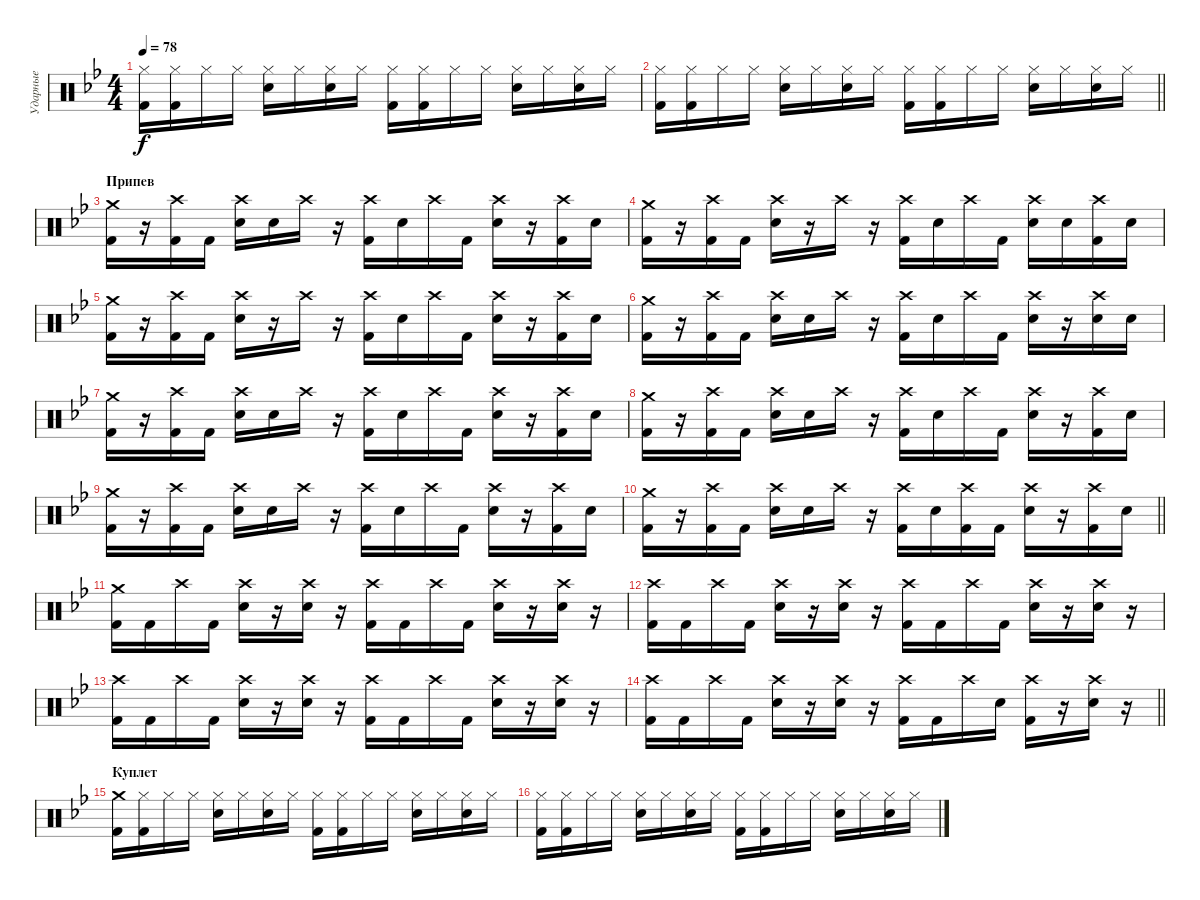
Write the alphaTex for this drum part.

\track ("Ударные" "Ударные") {instrument percussion}
\staff {score}
\articulation defaults
\ts (4 4)
\tempo 78
\clef neutral
\ks gminor
("Hi-Hat (closed)" "Kick (hit) 2").16{dy f} ("Hi-Hat (closed)" "Kick (hit) 2").16 "Hi-Hat (closed)".16 "Hi-Hat (closed)".16 ("Hi-Hat (closed)" "Electric Snare (hit)").16 "Hi-Hat (closed)".16 ("Hi-Hat (closed)" "Electric Snare (hit)").16 "Hi-Hat (closed)".16 ("Hi-Hat (closed)" "Kick (hit) 2").16 ("Hi-Hat (closed)" "Kick (hit) 2").16 "Hi-Hat (closed)".16 "Hi-Hat (closed)".16 ("Hi-Hat (closed)" "Electric Snare (hit)").16 "Hi-Hat (closed)".16 ("Hi-Hat (closed)" "Electric Snare (hit)").16 "Hi-Hat (closed)".16 |
\barLineRight lightlight
("Hi-Hat (closed)" "Kick (hit) 2").16 ("Hi-Hat (closed)" "Kick (hit) 2").16 "Hi-Hat (closed)".16 "Hi-Hat (closed)".16 ("Hi-Hat (closed)" "Electric Snare (hit)").16 "Hi-Hat (closed)".16 ("Hi-Hat (closed)" "Electric Snare (hit)").16 "Hi-Hat (closed)".16 ("Hi-Hat (closed)" "Kick (hit) 2").16 ("Hi-Hat (closed)" "Kick (hit) 2").16 "Hi-Hat (closed)".16 "Hi-Hat (closed)".16 ("Hi-Hat (closed)" "Electric Snare (hit)").16 "Hi-Hat (closed)".16 ("Hi-Hat (closed)" "Electric Snare (hit)").16 "Hi-Hat (closed)".16 |
\section ("" "Припев")
("Crash medium (hit)" "Kick (hit) 2").16 r.16 ("Crash high (hit)" "Kick (hit) 2").16 "Kick (hit) 2".16 ("Crash high (hit)" "Electric Snare (hit)").16 "Electric Snare (hit)".16 "Crash high (hit)".16 r.16 ("Crash high (hit)" "Kick (hit) 2").16 "Electric Snare (hit)".16 "Crash high (hit)".16 "Kick (hit) 2".16 ("Crash high (hit)" "Electric Snare (hit)").16 r.16 ("Crash high (hit)" "Kick (hit) 2").16 "Electric Snare (hit)".16 |
("Crash medium (hit)" "Kick (hit) 2").16 r.16 ("Crash high (hit)" "Kick (hit) 2").16 "Kick (hit) 2".16 ("Crash high (hit)" "Electric Snare (hit)").16 r.16 "Crash high (hit)".16 r.16 ("Crash high (hit)" "Kick (hit) 2").16 "Electric Snare (hit)".16 "Crash high (hit)".16 "Kick (hit) 2".16 ("Crash high (hit)" "Electric Snare (hit)").16 "Electric Snare (hit)".16 ("Crash high (hit)" "Kick (hit) 2").16 "Electric Snare (hit)".16 |
("Crash medium (hit)" "Kick (hit) 2").16 r.16 ("Crash high (hit)" "Kick (hit) 2").16 "Kick (hit) 2".16 ("Crash high (hit)" "Electric Snare (hit)").16 r.16 "Crash high (hit)".16 r.16 ("Crash high (hit)" "Kick (hit) 2").16 "Electric Snare (hit)".16 "Crash high (hit)".16 "Kick (hit) 2".16 ("Crash high (hit)" "Electric Snare (hit)").16 r.16 ("Crash high (hit)" "Kick (hit) 2").16 "Electric Snare (hit)".16 |
("Crash medium (hit)" "Kick (hit) 2").16 r.16 ("Crash high (hit)" "Kick (hit) 2").16 "Kick (hit) 2".16 ("Crash high (hit)" "Electric Snare (hit)").16 "Electric Snare (hit)".16 "Crash high (hit)".16 r.16 ("Crash high (hit)" "Kick (hit) 2").16 "Electric Snare (hit)".16 "Crash high (hit)".16 "Kick (hit) 2".16 ("Crash high (hit)" "Electric Snare (hit)").16 r.16 ("Crash high (hit)" "Electric Snare (hit)").16 "Electric Snare (hit)".16 |
("Crash medium (hit)" "Kick (hit) 2").16 r.16 ("Crash high (hit)" "Kick (hit) 2").16 "Kick (hit) 2".16 ("Crash high (hit)" "Electric Snare (hit)").16 "Electric Snare (hit)".16 "Crash high (hit)".16 r.16 ("Crash high (hit)" "Kick (hit) 2").16 "Electric Snare (hit)".16 "Crash high (hit)".16 "Kick (hit) 2".16 ("Crash high (hit)" "Electric Snare (hit)").16 r.16 ("Crash high (hit)" "Kick (hit) 2").16 "Electric Snare (hit)".16 |
("Crash medium (hit)" "Kick (hit) 2").16 r.16 ("Crash high (hit)" "Kick (hit) 2").16 "Kick (hit) 2".16 ("Crash high (hit)" "Electric Snare (hit)").16 "Electric Snare (hit)".16 "Crash high (hit)".16 r.16 ("Crash high (hit)" "Kick (hit) 2").16 "Electric Snare (hit)".16 "Crash high (hit)".16 "Kick (hit) 2".16 ("Crash high (hit)" "Electric Snare (hit)").16 r.16 ("Crash high (hit)" "Kick (hit) 2").16 "Electric Snare (hit)".16 |
("Crash medium (hit)" "Kick (hit) 2").16 r.16 ("Crash high (hit)" "Kick (hit) 2").16 "Kick (hit) 2".16 ("Crash high (hit)" "Electric Snare (hit)").16 "Electric Snare (hit)".16 "Crash high (hit)".16 r.16 ("Crash high (hit)" "Kick (hit) 2").16 "Electric Snare (hit)".16 "Crash high (hit)".16 "Kick (hit) 2".16 ("Crash high (hit)" "Electric Snare (hit)").16 r.16 ("Crash high (hit)" "Kick (hit) 2").16 "Electric Snare (hit)".16 |
\barLineRight lightlight
("Crash medium (hit)" "Kick (hit) 2").16 r.16 ("Crash high (hit)" "Kick (hit) 2").16 "Kick (hit) 2".16 ("Crash high (hit)" "Electric Snare (hit)").16 "Electric Snare (hit)".16 "Crash high (hit)".16 r.16 ("Crash high (hit)" "Kick (hit) 2").16 "Electric Snare (hit)".16 ("Crash high (hit)" "Kick (hit) 2").16 "Kick (hit) 2".16 ("Crash high (hit)" "Electric Snare (hit)").16 r.16 ("Crash high (hit)" "Kick (hit) 2").16 "Electric Snare (hit)".16 |
("Crash medium (hit)" "Kick (hit) 2").16 "Kick (hit) 2".16 "Crash high (hit)".16 "Kick (hit) 2".16 ("Crash high (hit)" "Electric Snare (hit)").16 r.16 ("Crash high (hit)" "Electric Snare (hit)").16 r.16 ("Crash high (hit)" "Kick (hit) 2").16 "Kick (hit) 2".16 "Crash high (hit)".16 "Kick (hit) 2".16 ("Crash high (hit)" "Electric Snare (hit)").16 r.16 ("Crash high (hit)" "Electric Snare (hit)").16 r.16 |
("Crash high (hit)" "Kick (hit) 2").16 "Kick (hit) 2".16 "Crash high (hit)".16 "Kick (hit) 2".16 ("Crash high (hit)" "Electric Snare (hit)").16 r.16 ("Crash high (hit)" "Electric Snare (hit)").16 r.16 ("Crash high (hit)" "Kick (hit) 2").16 "Kick (hit) 2".16 "Crash high (hit)".16 "Kick (hit) 2".16 ("Crash high (hit)" "Electric Snare (hit)").16 r.16 ("Crash high (hit)" "Electric Snare (hit)").16 r.16 |
("Crash high (hit)" "Kick (hit) 2").16 "Kick (hit) 2".16 "Crash high (hit)".16 "Kick (hit) 2".16 ("Crash high (hit)" "Electric Snare (hit)").16 r.16 ("Crash high (hit)" "Electric Snare (hit)").16 r.16 ("Crash high (hit)" "Kick (hit) 2").16 "Kick (hit) 2".16 "Crash high (hit)".16 "Kick (hit) 2".16 ("Crash high (hit)" "Electric Snare (hit)").16 r.16 ("Crash high (hit)" "Electric Snare (hit)").16 r.16 |
\barLineRight lightlight
("Crash high (hit)" "Kick (hit) 2").16 "Kick (hit) 2".16 "Crash high (hit)".16 "Kick (hit) 2".16 ("Crash high (hit)" "Electric Snare (hit)").16 r.16 ("Crash high (hit)" "Electric Snare (hit)").16 r.16 ("Crash high (hit)" "Kick (hit) 2").16 "Kick (hit) 2".16 "Crash high (hit)".16 "Electric Snare (hit)".16 ("Crash high (hit)" "Kick (hit) 2").16 r.16 ("Crash high (hit)" "Electric Snare (hit)").16 r.16 |
\section ("" "Куплет")
("Crash medium (hit)" "Kick (hit) 2").16 ("Hi-Hat (closed)" "Kick (hit) 2").16 "Hi-Hat (closed)".16 "Hi-Hat (closed)".16 ("Hi-Hat (closed)" "Electric Snare (hit)").16 "Hi-Hat (closed)".16 ("Hi-Hat (closed)" "Electric Snare (hit)").16 "Hi-Hat (closed)".16 ("Hi-Hat (closed)" "Kick (hit) 2").16 ("Hi-Hat (closed)" "Kick (hit) 2").16 "Hi-Hat (closed)".16 "Hi-Hat (closed)".16 ("Hi-Hat (closed)" "Electric Snare (hit)").16 "Hi-Hat (closed)".16 ("Hi-Hat (closed)" "Electric Snare (hit)").16 "Hi-Hat (closed)".16 |
("Hi-Hat (closed)" "Kick (hit) 2").16 ("Hi-Hat (closed)" "Kick (hit) 2").16 "Hi-Hat (closed)".16 "Hi-Hat (closed)".16 ("Hi-Hat (closed)" "Electric Snare (hit)").16 "Hi-Hat (closed)".16 ("Hi-Hat (closed)" "Electric Snare (hit)").16 "Hi-Hat (closed)".16 ("Hi-Hat (closed)" "Kick (hit) 2").16 ("Hi-Hat (closed)" "Kick (hit) 2").16 "Hi-Hat (closed)".16 "Hi-Hat (closed)".16 ("Hi-Hat (closed)" "Electric Snare (hit)").16 "Hi-Hat (closed)".16 ("Hi-Hat (closed)" "Electric Snare (hit)").16 "Hi-Hat (closed)".16
